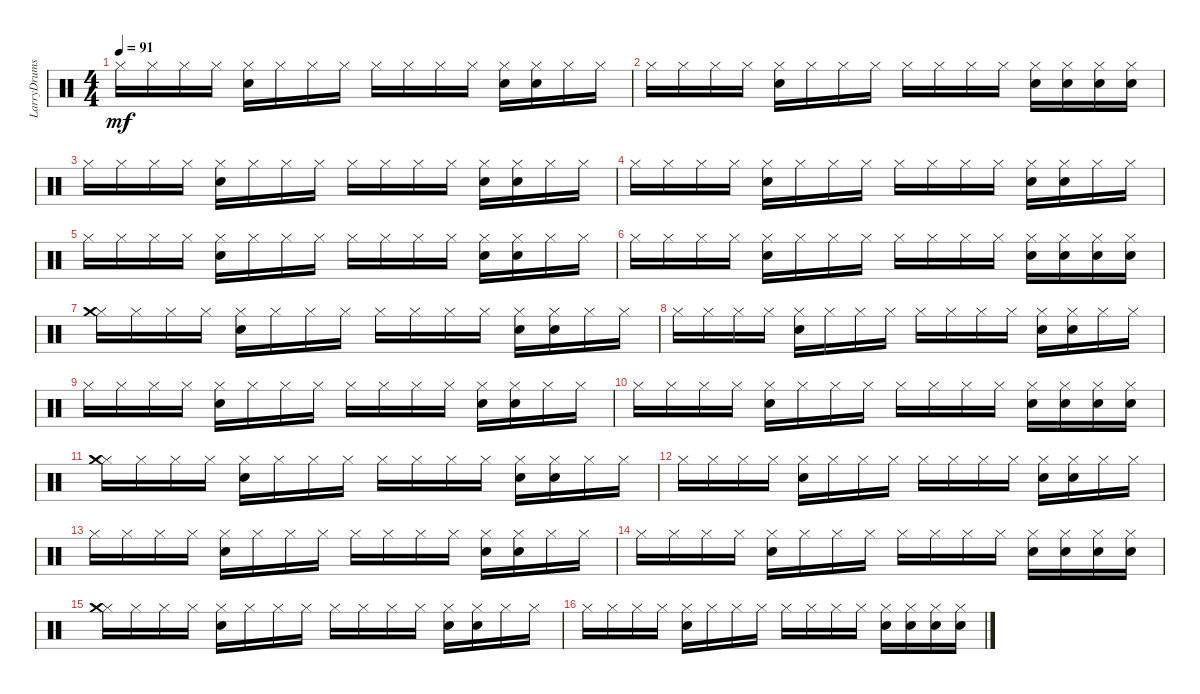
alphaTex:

\track ("LarryDrums2" "LarryDrums") {instrument percussion}
\staff {score}
\articulation defaults
\ts (4 4)
\tempo 91
\clef neutral
\ks c "Hi-Hat (closed)".16{dy mf} "Hi-Hat (closed)".16 "Hi-Hat (closed)".16 "Hi-Hat (closed)".16
("Hi-Hat (closed)" "Electric Snare (hit)").16 "Hi-Hat (closed)".16 "Hi-Hat (closed)".16 "Hi-Hat (closed)".16 "Hi-Hat (closed)".16 "Hi-Hat (closed)".16 "Hi-Hat (closed)".16 "Hi-Hat (closed)".16 ("Hi-Hat (closed)" "Electric Snare (hit)").16 ("Hi-Hat (closed)" "Electric Snare (hit)").16 "Hi-Hat (closed)".16 "Hi-Hat (closed)".16 |
"Hi-Hat (closed)".16 "Hi-Hat (closed)".16 "Hi-Hat (closed)".16 "Hi-Hat (closed)".16 ("Hi-Hat (closed)" "Electric Snare (hit)").16 "Hi-Hat (closed)".16 "Hi-Hat (closed)".16 "Hi-Hat (closed)".16 "Hi-Hat (closed)".16 "Hi-Hat (closed)".16 "Hi-Hat (closed)".16 "Hi-Hat (closed)".16 ("Hi-Hat (closed)" "Electric Snare (hit)").16 ("Hi-Hat (closed)" "Electric Snare (hit)").16 ("Hi-Hat (closed)" "Electric Snare (hit)").16 ("Hi-Hat (closed)" "Electric Snare (hit)").16 |
"Hi-Hat (closed)".16 "Hi-Hat (closed)".16 "Hi-Hat (closed)".16 "Hi-Hat (closed)".16 ("Hi-Hat (closed)" "Electric Snare (hit)").16 "Hi-Hat (closed)".16 "Hi-Hat (closed)".16 "Hi-Hat (closed)".16 "Hi-Hat (closed)".16 "Hi-Hat (closed)".16 "Hi-Hat (closed)".16 "Hi-Hat (closed)".16 ("Hi-Hat (closed)" "Electric Snare (hit)").16 ("Hi-Hat (closed)" "Electric Snare (hit)").16 "Hi-Hat (closed)".16 "Hi-Hat (closed)".16 |
"Hi-Hat (closed)".16 "Hi-Hat (closed)".16 "Hi-Hat (closed)".16 "Hi-Hat (closed)".16 ("Hi-Hat (closed)" "Electric Snare (hit)").16 "Hi-Hat (closed)".16 "Hi-Hat (closed)".16 "Hi-Hat (closed)".16 "Hi-Hat (closed)".16 "Hi-Hat (closed)".16 "Hi-Hat (closed)".16 "Hi-Hat (closed)".16 ("Hi-Hat (closed)" "Electric Snare (hit)").16 ("Hi-Hat (closed)" "Electric Snare (hit)").16 "Hi-Hat (closed)".16 "Hi-Hat (closed)".16 |
"Hi-Hat (closed)".16 "Hi-Hat (closed)".16 "Hi-Hat (closed)".16 "Hi-Hat (closed)".16 ("Hi-Hat (closed)" "Electric Snare (hit)").16 "Hi-Hat (closed)".16 "Hi-Hat (closed)".16 "Hi-Hat (closed)".16 "Hi-Hat (closed)".16 "Hi-Hat (closed)".16 "Hi-Hat (closed)".16 "Hi-Hat (closed)".16 ("Hi-Hat (closed)" "Electric Snare (hit)").16 ("Hi-Hat (closed)" "Electric Snare (hit)").16 "Hi-Hat (closed)".16 "Hi-Hat (closed)".16 |
"Hi-Hat (closed)".16 "Hi-Hat (closed)".16 "Hi-Hat (closed)".16 "Hi-Hat (closed)".16 ("Hi-Hat (closed)" "Electric Snare (hit)").16 "Hi-Hat (closed)".16 "Hi-Hat (closed)".16 "Hi-Hat (closed)".16 "Hi-Hat (closed)".16 "Hi-Hat (closed)".16 "Hi-Hat (closed)".16 "Hi-Hat (closed)".16 ("Hi-Hat (closed)" "Electric Snare (hit)").16 ("Hi-Hat (closed)" "Electric Snare (hit)").16 ("Hi-Hat (closed)" "Electric Snare (hit)").16 ("Hi-Hat (closed)" "Electric Snare (hit)").16 |
("Hi-Hat (closed)" "Crash medium (hit)").16 "Hi-Hat (closed)".16 "Hi-Hat (closed)".16 "Hi-Hat (closed)".16 ("Hi-Hat (closed)" "Electric Snare (hit)").16 "Hi-Hat (closed)".16 "Hi-Hat (closed)".16 "Hi-Hat (closed)".16 "Hi-Hat (closed)".16 "Hi-Hat (closed)".16 "Hi-Hat (closed)".16 "Hi-Hat (closed)".16 ("Hi-Hat (closed)" "Electric Snare (hit)").16 ("Hi-Hat (closed)" "Electric Snare (hit)").16 "Hi-Hat (closed)".16 "Hi-Hat (closed)".16 |
"Hi-Hat (closed)".16 "Hi-Hat (closed)".16 "Hi-Hat (closed)".16 "Hi-Hat (closed)".16 ("Hi-Hat (closed)" "Electric Snare (hit)").16 "Hi-Hat (closed)".16 "Hi-Hat (closed)".16 "Hi-Hat (closed)".16 "Hi-Hat (closed)".16 "Hi-Hat (closed)".16 "Hi-Hat (closed)".16 "Hi-Hat (closed)".16 ("Hi-Hat (closed)" "Electric Snare (hit)").16 ("Hi-Hat (closed)" "Electric Snare (hit)").16 "Hi-Hat (closed)".16 "Hi-Hat (closed)".16 |
"Hi-Hat (closed)".16 "Hi-Hat (closed)".16 "Hi-Hat (closed)".16 "Hi-Hat (closed)".16 ("Hi-Hat (closed)" "Electric Snare (hit)").16 "Hi-Hat (closed)".16 "Hi-Hat (closed)".16 "Hi-Hat (closed)".16 "Hi-Hat (closed)".16 "Hi-Hat (closed)".16 "Hi-Hat (closed)".16 "Hi-Hat (closed)".16 ("Hi-Hat (closed)" "Electric Snare (hit)").16 ("Hi-Hat (closed)" "Electric Snare (hit)").16 "Hi-Hat (closed)".16 "Hi-Hat (closed)".16 |
"Hi-Hat (closed)".16 "Hi-Hat (closed)".16 "Hi-Hat (closed)".16 "Hi-Hat (closed)".16 ("Hi-Hat (closed)" "Electric Snare (hit)").16 "Hi-Hat (closed)".16 "Hi-Hat (closed)".16 "Hi-Hat (closed)".16 "Hi-Hat (closed)".16 "Hi-Hat (closed)".16 "Hi-Hat (closed)".16 "Hi-Hat (closed)".16 ("Hi-Hat (closed)" "Electric Snare (hit)").16 ("Hi-Hat (closed)" "Electric Snare (hit)").16 ("Hi-Hat (closed)" "Electric Snare (hit)").16 ("Hi-Hat (closed)" "Electric Snare (hit)").16 |
("Hi-Hat (closed)" "Crash medium (hit)").16 "Hi-Hat (closed)".16 "Hi-Hat (closed)".16 "Hi-Hat (closed)".16 ("Hi-Hat (closed)" "Electric Snare (hit)").16 "Hi-Hat (closed)".16 "Hi-Hat (closed)".16 "Hi-Hat (closed)".16 "Hi-Hat (closed)".16 "Hi-Hat (closed)".16 "Hi-Hat (closed)".16 "Hi-Hat (closed)".16 ("Hi-Hat (closed)" "Electric Snare (hit)").16 ("Hi-Hat (closed)" "Electric Snare (hit)").16 "Hi-Hat (closed)".16 "Hi-Hat (closed)".16 |
"Hi-Hat (closed)".16 "Hi-Hat (closed)".16 "Hi-Hat (closed)".16 "Hi-Hat (closed)".16 ("Hi-Hat (closed)" "Electric Snare (hit)").16 "Hi-Hat (closed)".16 "Hi-Hat (closed)".16 "Hi-Hat (closed)".16 "Hi-Hat (closed)".16 "Hi-Hat (closed)".16 "Hi-Hat (closed)".16 "Hi-Hat (closed)".16 ("Hi-Hat (closed)" "Electric Snare (hit)").16 ("Hi-Hat (closed)" "Electric Snare (hit)").16 "Hi-Hat (closed)".16 "Hi-Hat (closed)".16 |
"Hi-Hat (closed)".16 "Hi-Hat (closed)".16 "Hi-Hat (closed)".16 "Hi-Hat (closed)".16 ("Hi-Hat (closed)" "Electric Snare (hit)").16 "Hi-Hat (closed)".16 "Hi-Hat (closed)".16 "Hi-Hat (closed)".16 "Hi-Hat (closed)".16 "Hi-Hat (closed)".16 "Hi-Hat (closed)".16 "Hi-Hat (closed)".16 ("Hi-Hat (closed)" "Electric Snare (hit)").16 ("Hi-Hat (closed)" "Electric Snare (hit)").16 "Hi-Hat (closed)".16 "Hi-Hat (closed)".16 |
"Hi-Hat (closed)".16 "Hi-Hat (closed)".16 "Hi-Hat (closed)".16 "Hi-Hat (closed)".16 ("Hi-Hat (closed)" "Electric Snare (hit)").16 "Hi-Hat (closed)".16 "Hi-Hat (closed)".16 "Hi-Hat (closed)".16 "Hi-Hat (closed)".16 "Hi-Hat (closed)".16 "Hi-Hat (closed)".16 "Hi-Hat (closed)".16 ("Hi-Hat (closed)" "Electric Snare (hit)").16 ("Hi-Hat (closed)" "Electric Snare (hit)").16 ("Hi-Hat (closed)" "Electric Snare (hit)").16 ("Hi-Hat (closed)" "Electric Snare (hit)").16 |
("Hi-Hat (closed)" "Crash medium (hit)").16 "Hi-Hat (closed)".16 "Hi-Hat (closed)".16 "Hi-Hat (closed)".16 ("Hi-Hat (closed)" "Electric Snare (hit)").16 "Hi-Hat (closed)".16 "Hi-Hat (closed)".16 "Hi-Hat (closed)".16 "Hi-Hat (closed)".16 "Hi-Hat (closed)".16 "Hi-Hat (closed)".16 "Hi-Hat (closed)".16 ("Hi-Hat (closed)" "Electric Snare (hit)").16 ("Hi-Hat (closed)" "Electric Snare (hit)").16 "Hi-Hat (closed)".16 "Hi-Hat (closed)".16 |
"Hi-Hat (closed)".16 "Hi-Hat (closed)".16 "Hi-Hat (closed)".16 "Hi-Hat (closed)".16 ("Hi-Hat (closed)" "Electric Snare (hit)").16 "Hi-Hat (closed)".16 "Hi-Hat (closed)".16 "Hi-Hat (closed)".16 "Hi-Hat (closed)".16 "Hi-Hat (closed)".16 "Hi-Hat (closed)".16 "Hi-Hat (closed)".16 ("Hi-Hat (closed)" "Electric Snare (hit)").16 ("Hi-Hat (closed)" "Electric Snare (hit)").16 ("Hi-Hat (closed)" "Electric Snare (hit)").16 ("Hi-Hat (closed)" "Electric Snare (hit)").16
